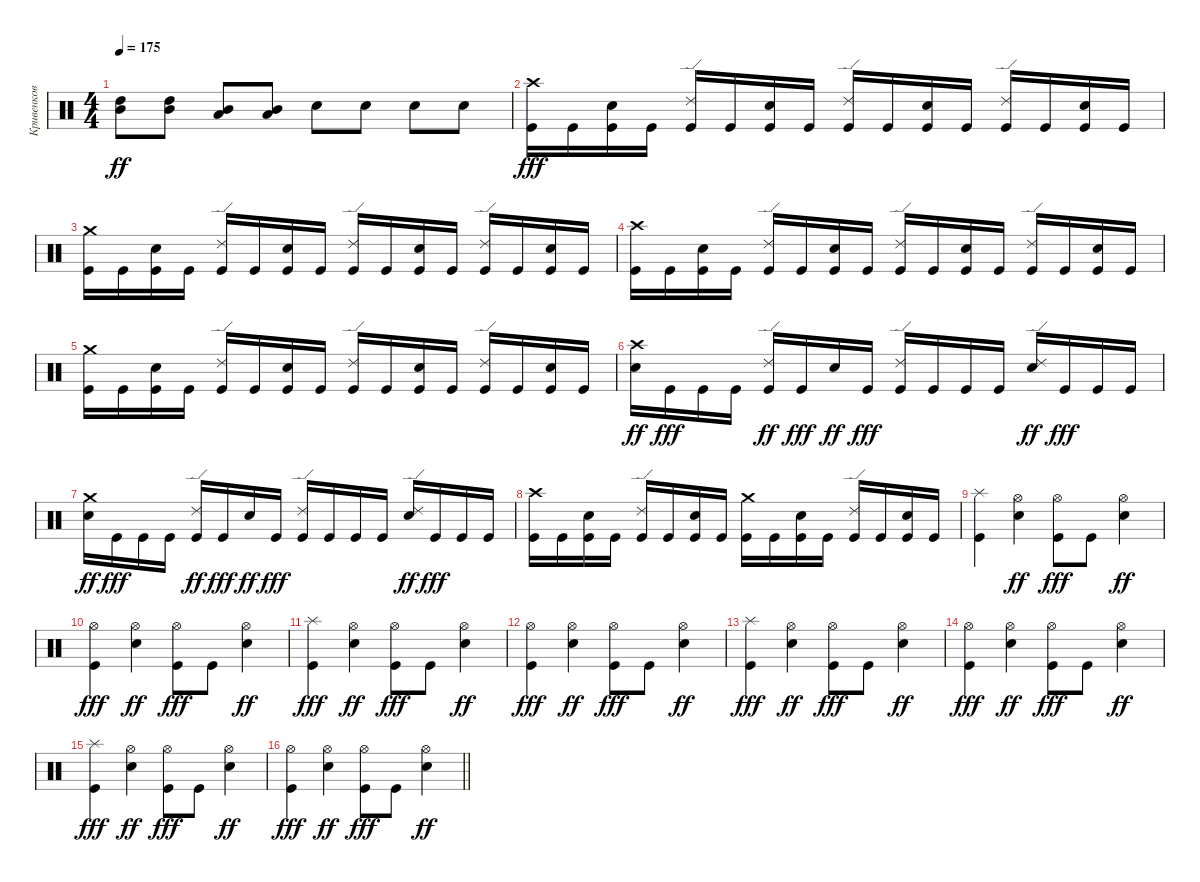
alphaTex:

\track ("Кривенков" "Кривенков") {instrument percussion}
\staff {score}
\articulation defaults
\ts (4 4)
\tempo 175
\clef neutral
\ks c
("Mid Tom (hit)" "High Tom (hit)").8{dy ff} ("Mid Tom (hit)" "High Tom (hit)").8 ("Low Tom (hit)" "Mid Tom (hit)").8 ("Low Tom (hit)" "Mid Tom (hit)").8 "Snare (hit) 2".8 "Snare (hit) 2".8 "Snare (hit) 2".8 "Snare (hit) 2".8 |
("Crash high (hit)" "Kick (hit)").16{dy fff} "Kick (hit)".16 ("Snare (hit) 2" "Kick (hit)").16 "Kick (hit)".16 ("Ride (edge) 2" "Kick (hit)").16 "Kick (hit)".16 ("Snare (hit) 2" "Kick (hit)").16 "Kick (hit)".16 ("Ride (edge) 2" "Kick (hit)").16 "Kick (hit)".16 ("Snare (hit) 2" "Kick (hit)").16 "Kick (hit)".16 ("Ride (edge) 2" "Kick (hit)").16 "Kick (hit)".16 ("Snare (hit) 2" "Kick (hit)").16 "Kick (hit)".16 |
("Crash medium (hit)" "Kick (hit)").16 "Kick (hit)".16 ("Snare (hit) 2" "Kick (hit)").16 "Kick (hit)".16 ("Ride (edge) 2" "Kick (hit)").16 "Kick (hit)".16 ("Snare (hit) 2" "Kick (hit)").16 "Kick (hit)".16 ("Ride (edge) 2" "Kick (hit)").16 "Kick (hit)".16 ("Snare (hit) 2" "Kick (hit)").16 "Kick (hit)".16 ("Ride (edge) 2" "Kick (hit)").16 "Kick (hit)".16 ("Snare (hit) 2" "Kick (hit)").16 "Kick (hit)".16 |
("Crash high (hit)" "Kick (hit)").16 "Kick (hit)".16 ("Snare (hit) 2" "Kick (hit)").16 "Kick (hit)".16 ("Ride (edge) 2" "Kick (hit)").16 "Kick (hit)".16 ("Snare (hit) 2" "Kick (hit)").16 "Kick (hit)".16 ("Ride (edge) 2" "Kick (hit)").16 "Kick (hit)".16 ("Snare (hit) 2" "Kick (hit)").16 "Kick (hit)".16 ("Ride (edge) 2" "Kick (hit)").16 "Kick (hit)".16 ("Snare (hit) 2" "Kick (hit)").16 "Kick (hit)".16 |
("Crash medium (hit)" "Kick (hit)").16 "Kick (hit)".16 ("Snare (hit) 2" "Kick (hit)").16 "Kick (hit)".16 ("Ride (edge) 2" "Kick (hit)").16 "Kick (hit)".16 ("Snare (hit) 2" "Kick (hit)").16 "Kick (hit)".16 ("Ride (edge) 2" "Kick (hit)").16 "Kick (hit)".16 ("Snare (hit) 2" "Kick (hit)").16 "Kick (hit)".16 ("Ride (edge) 2" "Kick (hit)").16 "Kick (hit)".16 ("Snare (hit) 2" "Kick (hit)").16 "Kick (hit)".16 |
("Crash high (hit)" "Snare (hit) 2").16{dy ff} "Kick (hit)".16{dy fff} "Kick (hit)".16 "Kick (hit)".16 ("Kick (hit)" "Ride (edge) 2").16{dy ff} "Kick (hit)".16{dy fff} "Snare (hit) 2".16{dy ff} "Kick (hit)".16{dy fff} ("Ride (edge) 2" "Kick (hit)").16 "Kick (hit)".16 "Kick (hit)".16 "Kick (hit)".16 ("Ride (edge) 2" "Snare (hit) 2").16{dy ff} "Kick (hit)".16{dy fff} "Kick (hit)".16 "Kick (hit)".16 |
("Crash medium (hit)" "Snare (hit) 2").16{dy ff} "Kick (hit)".16{dy fff} "Kick (hit)".16 "Kick (hit)".16 ("Kick (hit)" "Ride (edge) 2").16{dy ff} "Kick (hit)".16{dy fff} "Snare (hit) 2".16{dy ff} "Kick (hit)".16{dy fff} ("Ride (edge) 2" "Kick (hit)").16 "Kick (hit)".16 "Kick (hit)".16 "Kick (hit)".16 ("Ride (edge) 2" "Snare (hit) 2").16{dy ff} "Kick (hit)".16{dy fff} "Kick (hit)".16 "Kick (hit)".16 |
("Crash high (hit)" "Kick (hit)").16 "Kick (hit)".16 ("Snare (hit) 2" "Kick (hit)").16 "Kick (hit)".16 ("Ride (edge) 2" "Kick (hit)").16 "Kick (hit)".16 ("Snare (hit) 2" "Kick (hit)").16 "Kick (hit)".16 ("Crash medium (hit)" "Kick (hit)").16 "Kick (hit)".16 ("Snare (hit) 2" "Kick (hit)").16 "Kick (hit)".16 ("Ride (edge) 2" "Kick (hit)").16 "Kick (hit)".16 ("Snare (hit) 2" "Kick (hit)").16 "Kick (hit)".16 |
("Splash (hit)" "Kick (hit)").4 ("Hi-Hat (open)" "Snare (hit) 2").4{dy ff} ("Hi-Hat (open)" "Kick (hit)").8{dy fff} "Kick (hit)".8 ("Hi-Hat (open)" "Snare (hit) 2").4{dy ff} |
("Kick (hit)" "Hi-Hat (open)").4{dy fff} ("Snare (hit) 2" "Hi-Hat (open)").4{dy ff} ("Kick (hit)" "Hi-Hat (open)").8{dy fff} "Kick (hit)".8 ("Hi-Hat (open)" "Snare (hit) 2").4{dy ff} |
("Splash (hit)" "Kick (hit)").4{dy fff} ("Hi-Hat (open)" "Snare (hit) 2").4{dy ff} ("Hi-Hat (open)" "Kick (hit)").8{dy fff} "Kick (hit)".8 ("Hi-Hat (open)" "Snare (hit) 2").4{dy ff} |
("Kick (hit)" "Hi-Hat (open)").4{dy fff} ("Snare (hit) 2" "Hi-Hat (open)").4{dy ff} ("Kick (hit)" "Hi-Hat (open)").8{dy fff} "Kick (hit)".8 ("Hi-Hat (open)" "Snare (hit) 2").4{dy ff} |
("Splash (hit)" "Kick (hit)").4{dy fff} ("Hi-Hat (open)" "Snare (hit) 2").4{dy ff} ("Hi-Hat (open)" "Kick (hit)").8{dy fff} "Kick (hit)".8 ("Hi-Hat (open)" "Snare (hit) 2").4{dy ff} |
("Kick (hit)" "Hi-Hat (open)").4{dy fff} ("Snare (hit) 2" "Hi-Hat (open)").4{dy ff} ("Kick (hit)" "Hi-Hat (open)").8{dy fff} "Kick (hit)".8 ("Hi-Hat (open)" "Snare (hit) 2").4{dy ff} |
("Splash (hit)" "Kick (hit)").4{dy fff} ("Hi-Hat (open)" "Snare (hit) 2").4{dy ff} ("Hi-Hat (open)" "Kick (hit)").8{dy fff} "Kick (hit)".8 ("Hi-Hat (open)" "Snare (hit) 2").4{dy ff} |
\barLineRight lightlight
("Kick (hit)" "Hi-Hat (open)").4{dy fff} ("Snare (hit) 2" "Hi-Hat (open)").4{dy ff} ("Kick (hit)" "Hi-Hat (open)").8{dy fff} "Kick (hit)".8 ("Hi-Hat (open)" "Snare (hit) 2").4{dy ff}
